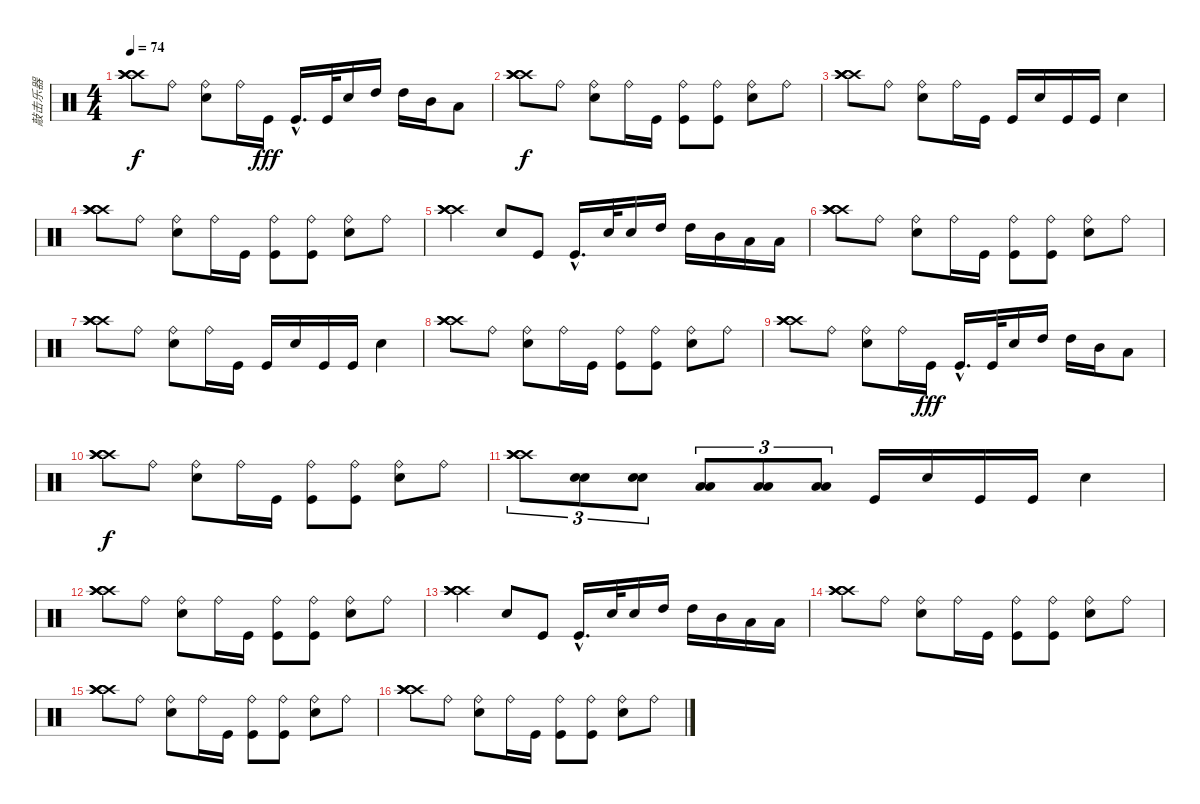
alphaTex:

\track ("敲击乐器" "敲击乐器") {instrument percussion}
\staff {score}
\articulation defaults
\ts (4 4)
\tempo 74
\clef neutral
\ks c
("Crash high (hit)" "Crash high (hit)" "Crash high (hit)" "Crash high (hit)").8{dy f} "Ride (bell)".8 ("Ride (bell)" "Snare (hit) 2").8 "Ride (bell)".16 "Kick (hit)".16{dy fff} "Kick (hit)"{hac}.16{d} "Kick (hit)".32 "Snare (hit) 2".16 "High Tom (hit)".16 "High Tom (hit)".16 "Mid Tom (hit)".16 "Low Tom (hit)".8 |
("Crash high (hit)" "Crash high (hit)" "Crash high (hit)" "Crash high (hit)").8{dy f} "Ride (bell)".8 ("Ride (bell)" "Snare (hit) 2").8 "Ride (bell)".16 "Kick (hit)".16 ("Ride (bell)" "Kick (hit)").8 ("Ride (bell)" "Kick (hit)").8 ("Ride (bell)" "Snare (hit) 2").8 "Ride (bell)".8 |
("Crash high (hit)" "Crash high (hit)" "Crash high (hit)" "Crash high (hit)").8 "Ride (bell)".8 ("Ride (bell)" "Snare (hit) 2").8 "Ride (bell)".16 "Kick (hit)".16 "Kick (hit)".16 "Snare (hit) 2".16 "Kick (hit)".16 "Kick (hit)".16 "Snare (hit) 2".4 |
("Crash high (hit)" "Crash high (hit)" "Crash high (hit)" "Crash high (hit)").8 "Ride (bell)".8 ("Ride (bell)" "Snare (hit) 2").8 "Ride (bell)".16 "Kick (hit)".16 ("Ride (bell)" "Kick (hit)").8 ("Ride (bell)" "Kick (hit)").8 ("Ride (bell)" "Snare (hit) 2").8 "Ride (bell)".8 |
("Crash high (hit)" "Crash high (hit)" "Crash high (hit)" "Crash high (hit)").4 "Snare (hit) 2".8 "Kick (hit)".8 "Kick (hit)"{hac}.16{d} "Snare (hit) 2".32 "Snare (hit) 2".16 "High Tom (hit)".16 "High Tom (hit)".16 "Mid Tom (hit)".16 "Low Tom (hit)".16 "Low Tom (hit)".16 |
("Crash high (hit)" "Crash high (hit)" "Crash high (hit)" "Crash high (hit)").8 "Ride (bell)".8 ("Ride (bell)" "Snare (hit) 2").8 "Ride (bell)".16 "Kick (hit)".16 ("Ride (bell)" "Kick (hit)").8 ("Ride (bell)" "Kick (hit)").8 ("Ride (bell)" "Snare (hit) 2").8 "Ride (bell)".8 |
("Crash high (hit)" "Crash high (hit)" "Crash high (hit)" "Crash high (hit)").8 "Ride (bell)".8 ("Ride (bell)" "Snare (hit) 2").8 "Ride (bell)".16 "Kick (hit)".16 "Kick (hit)".16 "Snare (hit) 2".16 "Kick (hit)".16 "Kick (hit)".16 "Snare (hit) 2".4 |
("Crash high (hit)" "Crash high (hit)" "Crash high (hit)" "Crash high (hit)").8 "Ride (bell)".8 ("Ride (bell)" "Snare (hit) 2").8 "Ride (bell)".16 "Kick (hit)".16 ("Ride (bell)" "Kick (hit)").8 ("Ride (bell)" "Kick (hit)").8 ("Ride (bell)" "Snare (hit) 2").8 "Ride (bell)".8 |
("Crash high (hit)" "Crash high (hit)" "Crash high (hit)" "Crash high (hit)").8 "Ride (bell)".8 ("Ride (bell)" "Snare (hit) 2").8 "Ride (bell)".16 "Kick (hit)".16{dy fff} "Kick (hit)"{hac}.16{d} "Kick (hit)".32 "Snare (hit) 2".16 "High Tom (hit)".16 "High Tom (hit)".16 "Mid Tom (hit)".16 "Low Tom (hit)".8 |
("Crash high (hit)" "Crash high (hit)" "Crash high (hit)" "Crash high (hit)").8{dy f} "Ride (bell)".8 ("Ride (bell)" "Snare (hit) 2").8 "Ride (bell)".16 "Kick (hit)".16 ("Ride (bell)" "Kick (hit)").8 ("Ride (bell)" "Kick (hit)").8 ("Ride (bell)" "Snare (hit) 2").8 "Ride (bell)".8 |
("Crash high (hit)" "Crash high (hit)" "Crash high (hit)" "Crash high (hit)").8{tu (3 2)} ("Snare (hit) 2" "Snare (hit) 2").8{tu (3 2)} ("Snare (hit) 2" "Snare (hit) 2").8{tu (3 2)} ("Low Tom (hit)" "Low Tom (hit)").8{tu (3 2)} ("Low Tom (hit)" "Low Tom (hit)").8{tu (3 2)} ("Low Tom (hit)" "Low Tom (hit)").8{tu (3 2)} "Kick (hit)".16 "Snare (hit) 2".16 "Kick (hit)".16 "Kick (hit)".16 "Snare (hit) 2".4 |
("Crash high (hit)" "Crash high (hit)" "Crash high (hit)" "Crash high (hit)").8 "Ride (bell)".8 ("Ride (bell)" "Snare (hit) 2").8 "Ride (bell)".16 "Kick (hit)".16 ("Ride (bell)" "Kick (hit)").8 ("Ride (bell)" "Kick (hit)").8 ("Ride (bell)" "Snare (hit) 2").8 "Ride (bell)".8 |
("Crash high (hit)" "Crash high (hit)" "Crash high (hit)" "Crash high (hit)").4 "Snare (hit) 2".8 "Kick (hit)".8 "Kick (hit)"{hac}.16{d} "Snare (hit) 2".32 "Snare (hit) 2".16 "High Tom (hit)".16 "High Tom (hit)".16 "Mid Tom (hit)".16 "Low Tom (hit)".16 "Low Tom (hit)".16 |
("Crash high (hit)" "Crash high (hit)" "Crash high (hit)" "Crash high (hit)").8 "Ride (bell)".8 ("Ride (bell)" "Snare (hit) 2").8 "Ride (bell)".16 "Kick (hit)".16 ("Ride (bell)" "Kick (hit)").8 ("Ride (bell)" "Kick (hit)").8 ("Ride (bell)" "Snare (hit) 2").8 "Ride (bell)".8 |
("Crash high (hit)" "Crash high (hit)" "Crash high (hit)" "Crash high (hit)").8 "Ride (bell)".8 ("Ride (bell)" "Snare (hit) 2").8 "Ride (bell)".16 "Kick (hit)".16 ("Ride (bell)" "Kick (hit)").8 ("Ride (bell)" "Kick (hit)").8 ("Ride (bell)" "Snare (hit) 2").8 "Ride (bell)".8 |
("Crash high (hit)" "Crash high (hit)" "Crash high (hit)" "Crash high (hit)").8 "Ride (bell)".8 ("Ride (bell)" "Snare (hit) 2").8 "Ride (bell)".16 "Kick (hit)".16 ("Ride (bell)" "Kick (hit)").8 ("Ride (bell)" "Kick (hit)").8 ("Ride (bell)" "Snare (hit) 2").8 "Ride (bell)".8
